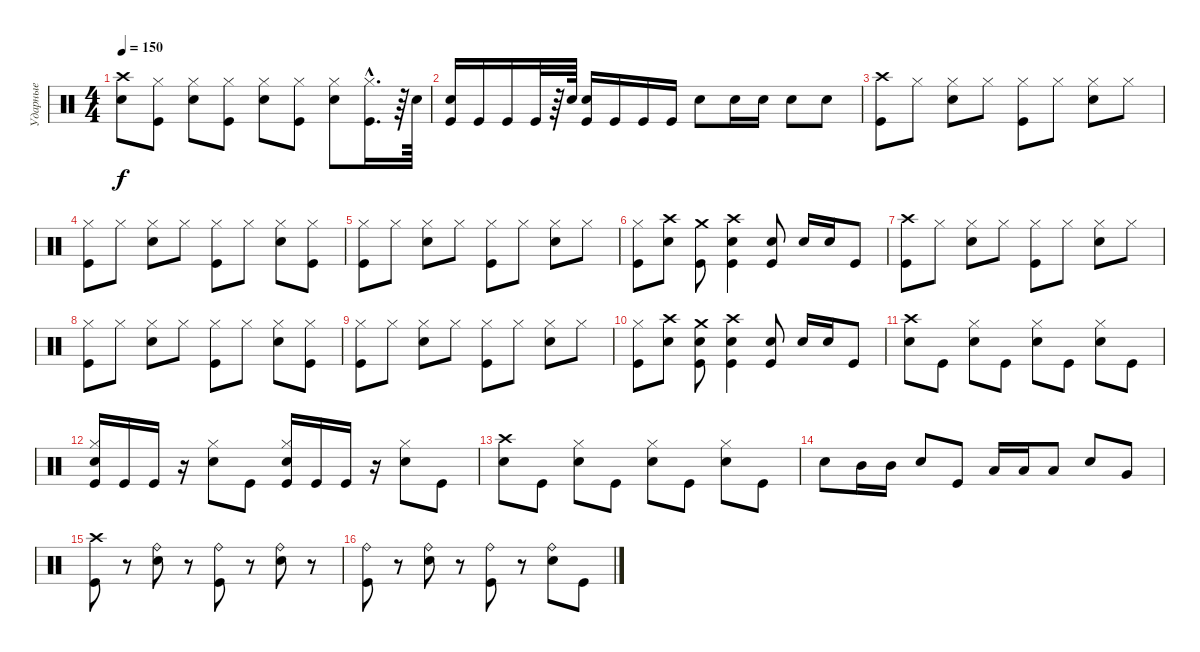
\track ("Ударные" "Ударные") {instrument percussion}
\staff {score}
\articulation defaults
\ts (4 4)
\tempo 150
\clef neutral
\ks c
("Crash high (hit)" "Electric Snare (hit)").8{dy f} ("Hi-Hat (closed)" "Kick (hit)").8 ("Hi-Hat (closed)" "Electric Snare (hit)").8 ("Hi-Hat (closed)" "Kick (hit)").8 ("Hi-Hat (closed)" "Electric Snare (hit)").8 ("Hi-Hat (closed)" "Kick (hit)").8 ("Hi-Hat (closed)" "Electric Snare (hit)").8 ("Hi-Hat (closed)"{hac} "Kick (hit)"{hac}).16{d} r.64 "Electric Snare (hit)".64 |
("Electric Snare (hit)" "Kick (hit)").16 "Kick (hit)".16 "Kick (hit)".16 "Kick (hit)".32 r.64 "Electric Snare (hit)".64 ("Electric Snare (hit)" "Kick (hit)").16 "Kick (hit)".16 "Kick (hit)".16 "Kick (hit)".16 "Electric Snare (hit)".8 "Electric Snare (hit)".16 "Electric Snare (hit)".16 "Electric Snare (hit)".8 "Electric Snare (hit)".8 |
("Crash high (hit)" "Kick (hit)").8 "Hi-Hat (closed)".8 ("Hi-Hat (closed)" "Electric Snare (hit)").8 "Hi-Hat (closed)".8 ("Hi-Hat (closed)" "Kick (hit)").8 "Hi-Hat (closed)".8 ("Hi-Hat (closed)" "Electric Snare (hit)").8 "Hi-Hat (closed)".8 |
("Hi-Hat (closed)" "Kick (hit)").8 "Hi-Hat (closed)".8 ("Hi-Hat (closed)" "Electric Snare (hit)").8 "Hi-Hat (closed)".8 ("Hi-Hat (closed)" "Kick (hit)").8 "Hi-Hat (closed)".8 ("Hi-Hat (closed)" "Electric Snare (hit)").8 ("Hi-Hat (closed)" "Kick (hit)").8 |
("Hi-Hat (closed)" "Kick (hit)").8 "Hi-Hat (closed)".8 ("Hi-Hat (closed)" "Electric Snare (hit)").8 "Hi-Hat (closed)".8 ("Hi-Hat (closed)" "Kick (hit)").8 "Hi-Hat (closed)".8 ("Hi-Hat (closed)" "Electric Snare (hit)").8 "Hi-Hat (closed)".8 |
("Hi-Hat (closed)" "Kick (hit)").8 ("Crash high (hit)" "Electric Snare (hit)").8 ("Crash medium (hit)" "Kick (hit)").8 ("Crash high (hit)" "Electric Snare (hit)" "Kick (hit)").4 ("Electric Snare (hit)" "Kick (hit)").8 "Electric Snare (hit)".16 "Electric Snare (hit)".16 "Kick (hit)".8 |
("Crash high (hit)" "Kick (hit)").8 "Hi-Hat (closed)".8 ("Hi-Hat (closed)" "Electric Snare (hit)").8 "Hi-Hat (closed)".8 ("Hi-Hat (closed)" "Kick (hit)").8 "Hi-Hat (closed)".8 ("Hi-Hat (closed)" "Electric Snare (hit)").8 "Hi-Hat (closed)".8 |
("Hi-Hat (closed)" "Kick (hit)").8 "Hi-Hat (closed)".8 ("Hi-Hat (closed)" "Electric Snare (hit)").8 "Hi-Hat (closed)".8 ("Hi-Hat (closed)" "Kick (hit)").8 "Hi-Hat (closed)".8 ("Hi-Hat (closed)" "Electric Snare (hit)").8 ("Hi-Hat (closed)" "Kick (hit)").8 |
("Hi-Hat (closed)" "Kick (hit)").8 "Hi-Hat (closed)".8 ("Hi-Hat (closed)" "Electric Snare (hit)").8 "Hi-Hat (closed)".8 ("Hi-Hat (closed)" "Kick (hit)").8 "Hi-Hat (closed)".8 ("Hi-Hat (closed)" "Electric Snare (hit)").8 "Hi-Hat (closed)".8 |
("Hi-Hat (closed)" "Kick (hit)").8 ("Crash high (hit)" "Electric Snare (hit)").8 ("Crash medium (hit)" "Electric Snare (hit)" "Kick (hit)").8 ("Crash high (hit)" "Electric Snare (hit)" "Kick (hit)").4 ("Electric Snare (hit)" "Kick (hit)").8 "Electric Snare (hit)".16 "Electric Snare (hit)".16 "Kick (hit)".8 |
("Crash high (hit)" "Electric Snare (hit)").8 "Kick (hit)".8 ("Hi-Hat (closed)" "Electric Snare (hit)").8 "Kick (hit)".8 ("Hi-Hat (closed)" "Electric Snare (hit)").8 "Kick (hit)".8 ("Hi-Hat (closed)" "Electric Snare (hit)").8 "Kick (hit)".8 |
("Hi-Hat (closed)" "Electric Snare (hit)" "Kick (hit)").16 "Kick (hit)".16 "Kick (hit)".16 r.16 ("Hi-Hat (closed)" "Electric Snare (hit)").8 "Kick (hit)".8 ("Hi-Hat (closed)" "Electric Snare (hit)" "Kick (hit)").16 "Kick (hit)".16 "Kick (hit)".16 r.16 ("Hi-Hat (closed)" "Electric Snare (hit)").8 "Kick (hit)".8 |
("Crash high (hit)" "Electric Snare (hit)").8 "Kick (hit)".8 ("Hi-Hat (closed)" "Electric Snare (hit)").8 "Kick (hit)".8 ("Hi-Hat (closed)" "Electric Snare (hit)").8 "Kick (hit)".8 ("Hi-Hat (closed)" "Electric Snare (hit)").8 "Kick (hit)".8 |
"Electric Snare (hit)".8 "Mid Tom (hit)".16 "Mid Tom (hit)".16 "Electric Snare (hit)".8 "Kick (hit)".8 "Low Tom (hit)".16 "Low Tom (hit)".16 "Low Tom (hit)".8 "Electric Snare (hit)".8 "Very Low Tom (hit)".8 |
("Crash high (hit)" "Kick (hit)").8 r.8 ("Ride (bell)" "Electric Snare (hit)").8 r.8 ("Ride (bell)" "Kick (hit)").8 r.8 ("Ride (bell)" "Electric Snare (hit)").8 r.8 |
("Ride (bell)" "Kick (hit)").8 r.8 ("Ride (bell)" "Electric Snare (hit)").8 r.8 ("Ride (bell)" "Kick (hit)").8 r.8 ("Ride (bell)" "Electric Snare (hit)").8 "Kick (hit)".8
